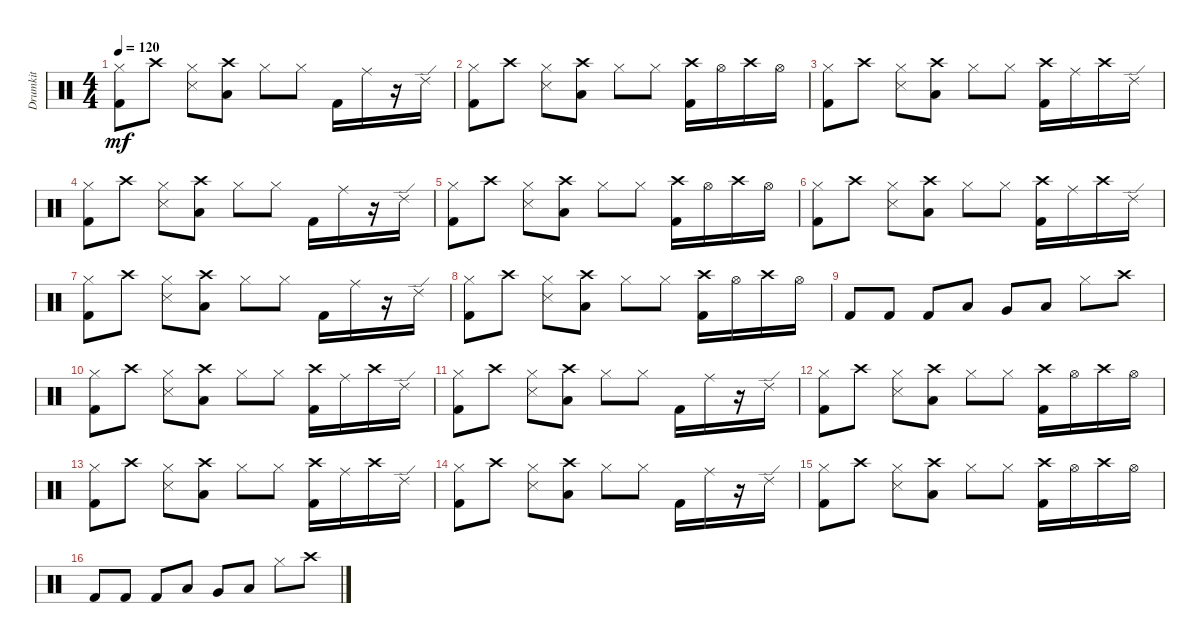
\track ("Drumkit" "Drumkit") {instrument percussion}
\staff {score}
\articulation defaults
\ts (4 4)
\tempo 120
\clef neutral
\ks c
("Hi-Hat (closed)" "Kick (hit) 2").8{dy mf} "Crash high (hit)".8 ("Hi-Hat (closed)" "Snare (side stick) 3").8 ("Crash high (hit)" "Low Floor Tom (hit)").8 "Hi-Hat (closed)".8 "Hi-Hat (closed)".8 "Kick (hit) 2".16 "Ride (middle)".16 r.16 "Ride (edge) 2".16 |
("Hi-Hat (closed)" "Kick (hit) 2").8 "Crash high (hit)".8 ("Hi-Hat (closed)" "Snare (side stick) 3").8 ("Crash high (hit)" "Low Floor Tom (hit)").8 "Hi-Hat (closed)".8 "Hi-Hat (closed)".8 ("Crash high (hit)" "Kick (hit) 2").16 "Hi-Hat (open)".16 "Crash high (hit)".16 "Hi-Hat (open)".16 |
("Hi-Hat (closed)" "Kick (hit) 2").8 "Crash high (hit)".8 ("Hi-Hat (closed)" "Snare (side stick) 3").8 ("Crash high (hit)" "Low Floor Tom (hit)").8 "Hi-Hat (closed)".8 "Hi-Hat (closed)".8 ("Crash high (hit)" "Kick (hit) 2").16 "Ride (middle)".16 "Crash high (hit)".16 "Ride (edge) 2".16 |
("Hi-Hat (closed)" "Kick (hit) 2").8 "Crash high (hit)".8 ("Hi-Hat (closed)" "Snare (side stick) 3").8 ("Crash high (hit)" "Low Floor Tom (hit)").8 "Hi-Hat (closed)".8 "Hi-Hat (closed)".8 "Kick (hit) 2".16 "Ride (middle)".16 r.16 "Ride (edge) 2".16 |
("Hi-Hat (closed)" "Kick (hit) 2").8 "Crash high (hit)".8 ("Hi-Hat (closed)" "Snare (side stick) 3").8 ("Crash high (hit)" "Low Floor Tom (hit)").8 "Hi-Hat (closed)".8 "Hi-Hat (closed)".8 ("Crash high (hit)" "Kick (hit) 2").16 "Hi-Hat (open)".16 "Crash high (hit)".16 "Hi-Hat (open)".16 |
("Hi-Hat (closed)" "Kick (hit) 2").8 "Crash high (hit)".8 ("Hi-Hat (closed)" "Snare (side stick) 3").8 ("Crash high (hit)" "Low Floor Tom (hit)").8 "Hi-Hat (closed)".8 "Hi-Hat (closed)".8 ("Crash high (hit)" "Kick (hit) 2").16 "Ride (middle)".16 "Crash high (hit)".16 "Ride (edge) 2".16 |
("Hi-Hat (closed)" "Kick (hit) 2").8 "Crash high (hit)".8 ("Hi-Hat (closed)" "Snare (side stick) 3").8 ("Crash high (hit)" "Low Floor Tom (hit)").8 "Hi-Hat (closed)".8 "Hi-Hat (closed)".8 "Kick (hit) 2".16 "Ride (middle)".16 r.16 "Ride (edge) 2".16 |
("Hi-Hat (closed)" "Kick (hit) 2").8 "Crash high (hit)".8 ("Hi-Hat (closed)" "Snare (side stick) 3").8 ("Crash high (hit)" "Low Floor Tom (hit)").8 "Hi-Hat (closed)".8 "Hi-Hat (closed)".8 ("Crash high (hit)" "Kick (hit) 2").16 "Hi-Hat (open)".16 "Crash high (hit)".16 "Hi-Hat (open)".16 |
"Kick (hit) 2".8 "Kick (hit) 2".8 "Kick (hit) 2".8 "Low Floor Tom (hit)".8 "Very Low Tom (hit)".8 "Low Tom (hit)".8 "Hi-Hat (closed)".8 "Crash high (hit)".8 |
("Hi-Hat (closed)" "Kick (hit) 2").8 "Crash high (hit)".8 ("Hi-Hat (closed)" "Snare (side stick) 3").8 ("Crash high (hit)" "Low Floor Tom (hit)").8 "Hi-Hat (closed)".8 "Hi-Hat (closed)".8 ("Crash high (hit)" "Kick (hit) 2").16 "Ride (middle)".16 "Crash high (hit)".16 "Ride (edge) 2".16 |
("Hi-Hat (closed)" "Kick (hit) 2").8 "Crash high (hit)".8 ("Hi-Hat (closed)" "Snare (side stick) 3").8 ("Crash high (hit)" "Low Floor Tom (hit)").8 "Hi-Hat (closed)".8 "Hi-Hat (closed)".8 "Kick (hit) 2".16 "Ride (middle)".16 r.16 "Ride (edge) 2".16 |
("Hi-Hat (closed)" "Kick (hit) 2").8 "Crash high (hit)".8 ("Hi-Hat (closed)" "Snare (side stick) 3").8 ("Crash high (hit)" "Low Floor Tom (hit)").8 "Hi-Hat (closed)".8 "Hi-Hat (closed)".8 ("Crash high (hit)" "Kick (hit) 2").16 "Hi-Hat (open)".16 "Crash high (hit)".16 "Hi-Hat (open)".16 |
("Hi-Hat (closed)" "Kick (hit) 2").8 "Crash high (hit)".8 ("Hi-Hat (closed)" "Snare (side stick) 3").8 ("Crash high (hit)" "Low Floor Tom (hit)").8 "Hi-Hat (closed)".8 "Hi-Hat (closed)".8 ("Crash high (hit)" "Kick (hit) 2").16 "Ride (middle)".16 "Crash high (hit)".16 "Ride (edge) 2".16 |
("Hi-Hat (closed)" "Kick (hit) 2").8 "Crash high (hit)".8 ("Hi-Hat (closed)" "Snare (side stick) 3").8 ("Crash high (hit)" "Low Floor Tom (hit)").8 "Hi-Hat (closed)".8 "Hi-Hat (closed)".8 "Kick (hit) 2".16 "Ride (middle)".16 r.16 "Ride (edge) 2".16 |
("Hi-Hat (closed)" "Kick (hit) 2").8 "Crash high (hit)".8 ("Hi-Hat (closed)" "Snare (side stick) 3").8 ("Crash high (hit)" "Low Floor Tom (hit)").8 "Hi-Hat (closed)".8 "Hi-Hat (closed)".8 ("Crash high (hit)" "Kick (hit) 2").16 "Hi-Hat (open)".16 "Crash high (hit)".16 "Hi-Hat (open)".16 |
"Kick (hit) 2".8 "Kick (hit) 2".8 "Kick (hit) 2".8 "Low Floor Tom (hit)".8 "Very Low Tom (hit)".8 "Low Tom (hit)".8 "Hi-Hat (closed)".8 "Crash high (hit)".8
